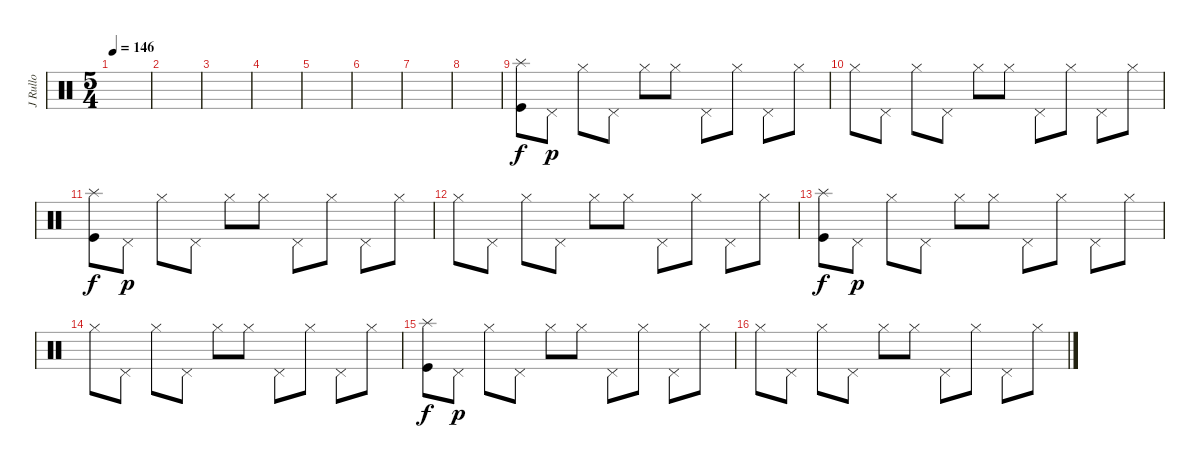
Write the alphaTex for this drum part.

\track ("J Rullo" "J Rullo") {instrument percussion}
\staff {score}
\articulation defaults
\ts (5 4)
\tempo 146
\clef neutral
\ks c
|
|
|
|
|
|
|
|
("Splash (hit)" "Kick (hit)").8 "Pedal Hi-Hat (hit)".8{dy p} "Hi-Hat (closed)".8 "Pedal Hi-Hat (hit)".8 "Hi-Hat (closed)".8 "Hi-Hat (closed)".8 "Pedal Hi-Hat (hit)".8 "Hi-Hat (closed)".8 "Pedal Hi-Hat (hit)".8 "Hi-Hat (closed)".8 |
"Hi-Hat (closed)".8 "Pedal Hi-Hat (hit)".8 "Hi-Hat (closed)".8 "Pedal Hi-Hat (hit)".8 "Hi-Hat (closed)".8 "Hi-Hat (closed)".8 "Pedal Hi-Hat (hit)".8 "Hi-Hat (closed)".8 "Pedal Hi-Hat (hit)".8 "Hi-Hat (closed)".8 |
("Splash (hit)" "Kick (hit)").8{dy f} "Pedal Hi-Hat (hit)".8{dy p} "Hi-Hat (closed)".8 "Pedal Hi-Hat (hit)".8 "Hi-Hat (closed)".8 "Hi-Hat (closed)".8 "Pedal Hi-Hat (hit)".8 "Hi-Hat (closed)".8 "Pedal Hi-Hat (hit)".8 "Hi-Hat (closed)".8 |
"Hi-Hat (closed)".8 "Pedal Hi-Hat (hit)".8 "Hi-Hat (closed)".8 "Pedal Hi-Hat (hit)".8 "Hi-Hat (closed)".8 "Hi-Hat (closed)".8 "Pedal Hi-Hat (hit)".8 "Hi-Hat (closed)".8 "Pedal Hi-Hat (hit)".8 "Hi-Hat (closed)".8 |
("Splash (hit)" "Kick (hit)").8{dy f} "Pedal Hi-Hat (hit)".8{dy p} "Hi-Hat (closed)".8 "Pedal Hi-Hat (hit)".8 "Hi-Hat (closed)".8 "Hi-Hat (closed)".8 "Pedal Hi-Hat (hit)".8 "Hi-Hat (closed)".8 "Pedal Hi-Hat (hit)".8 "Hi-Hat (closed)".8 |
"Hi-Hat (closed)".8 "Pedal Hi-Hat (hit)".8 "Hi-Hat (closed)".8 "Pedal Hi-Hat (hit)".8 "Hi-Hat (closed)".8 "Hi-Hat (closed)".8 "Pedal Hi-Hat (hit)".8 "Hi-Hat (closed)".8 "Pedal Hi-Hat (hit)".8 "Hi-Hat (closed)".8 |
("Splash (hit)" "Kick (hit)").8{dy f} "Pedal Hi-Hat (hit)".8{dy p} "Hi-Hat (closed)".8 "Pedal Hi-Hat (hit)".8 "Hi-Hat (closed)".8 "Hi-Hat (closed)".8 "Pedal Hi-Hat (hit)".8 "Hi-Hat (closed)".8 "Pedal Hi-Hat (hit)".8 "Hi-Hat (closed)".8 |
"Hi-Hat (closed)".8 "Pedal Hi-Hat (hit)".8 "Hi-Hat (closed)".8 "Pedal Hi-Hat (hit)".8 "Hi-Hat (closed)".8 "Hi-Hat (closed)".8 "Pedal Hi-Hat (hit)".8 "Hi-Hat (closed)".8 "Pedal Hi-Hat (hit)".8 "Hi-Hat (closed)".8
